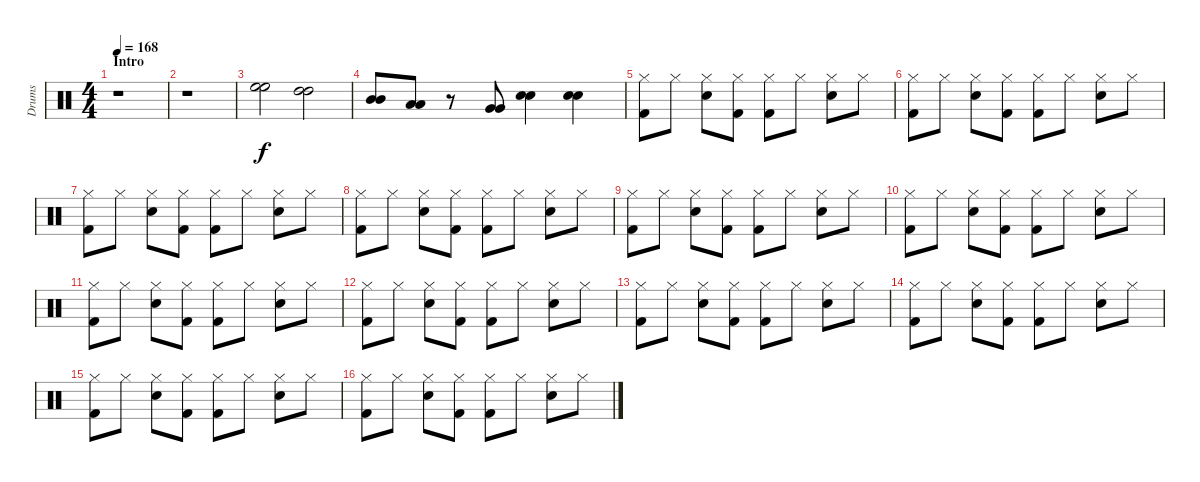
\track ("Drums" "Drums") {instrument percussion}
\staff {score}
\articulation defaults
\ts (4 4)
\section ("" "Intro")
\tempo 168
\clef neutral
\ks c
r.1{dy f} |
r.1 |
("High Floor Tom (hit)" "High Floor Tom (hit)").2 ("High Tom (hit)" "High Tom (hit)").2 |
("Mid Tom (hit)" "Mid Tom (hit)").8 ("Low Tom (hit)" "Low Tom (hit)").8 r.8 ("Very Low Tom (hit)" "Very Low Tom (hit)").8 ("Snare (hit) 2" "Electric Snare (hit)").4 ("Snare (hit) 2" "Electric Snare (hit)").4 |
("Kick (hit) 2" "Hi-Hat (closed)").8 "Hi-Hat (closed)".8 ("Snare (hit) 2" "Hi-Hat (closed)").8 ("Kick (hit) 2" "Hi-Hat (closed)").8 ("Kick (hit) 2" "Hi-Hat (closed)").8 "Hi-Hat (closed)".8 ("Snare (hit) 2" "Hi-Hat (closed)").8 "Hi-Hat (closed)".8 |
("Kick (hit) 2" "Hi-Hat (closed)").8 "Hi-Hat (closed)".8 ("Snare (hit) 2" "Hi-Hat (closed)").8 ("Kick (hit) 2" "Hi-Hat (closed)").8 ("Kick (hit) 2" "Hi-Hat (closed)").8 "Hi-Hat (closed)".8 ("Snare (hit) 2" "Hi-Hat (closed)").8 "Hi-Hat (closed)".8 |
("Kick (hit) 2" "Hi-Hat (closed)").8 "Hi-Hat (closed)".8 ("Snare (hit) 2" "Hi-Hat (closed)").8 ("Kick (hit) 2" "Hi-Hat (closed)").8 ("Kick (hit) 2" "Hi-Hat (closed)").8 "Hi-Hat (closed)".8 ("Snare (hit) 2" "Hi-Hat (closed)").8 "Hi-Hat (closed)".8 |
("Kick (hit) 2" "Hi-Hat (closed)").8 "Hi-Hat (closed)".8 ("Snare (hit) 2" "Hi-Hat (closed)").8 ("Kick (hit) 2" "Hi-Hat (closed)").8 ("Kick (hit) 2" "Hi-Hat (closed)").8 "Hi-Hat (closed)".8 ("Snare (hit) 2" "Hi-Hat (closed)").8 "Hi-Hat (closed)".8 |
("Kick (hit) 2" "Hi-Hat (closed)").8 "Hi-Hat (closed)".8 ("Snare (hit) 2" "Hi-Hat (closed)").8 ("Kick (hit) 2" "Hi-Hat (closed)").8 ("Kick (hit) 2" "Hi-Hat (closed)").8 "Hi-Hat (closed)".8 ("Snare (hit) 2" "Hi-Hat (closed)").8 "Hi-Hat (closed)".8 |
("Kick (hit) 2" "Hi-Hat (closed)").8 "Hi-Hat (closed)".8 ("Snare (hit) 2" "Hi-Hat (closed)").8 ("Kick (hit) 2" "Hi-Hat (closed)").8 ("Kick (hit) 2" "Hi-Hat (closed)").8 "Hi-Hat (closed)".8 ("Snare (hit) 2" "Hi-Hat (closed)").8 "Hi-Hat (closed)".8 |
("Kick (hit) 2" "Hi-Hat (closed)").8 "Hi-Hat (closed)".8 ("Snare (hit) 2" "Hi-Hat (closed)").8 ("Kick (hit) 2" "Hi-Hat (closed)").8 ("Kick (hit) 2" "Hi-Hat (closed)").8 "Hi-Hat (closed)".8 ("Snare (hit) 2" "Hi-Hat (closed)").8 "Hi-Hat (closed)".8 |
("Kick (hit) 2" "Hi-Hat (closed)").8 "Hi-Hat (closed)".8 ("Snare (hit) 2" "Hi-Hat (closed)").8 ("Kick (hit) 2" "Hi-Hat (closed)").8 ("Kick (hit) 2" "Hi-Hat (closed)").8 "Hi-Hat (closed)".8 ("Snare (hit) 2" "Hi-Hat (closed)").8 "Hi-Hat (closed)".8 |
("Kick (hit) 2" "Hi-Hat (closed)").8 "Hi-Hat (closed)".8 ("Snare (hit) 2" "Hi-Hat (closed)").8 ("Kick (hit) 2" "Hi-Hat (closed)").8 ("Kick (hit) 2" "Hi-Hat (closed)").8 "Hi-Hat (closed)".8 ("Snare (hit) 2" "Hi-Hat (closed)").8 "Hi-Hat (closed)".8 |
("Kick (hit) 2" "Hi-Hat (closed)").8 "Hi-Hat (closed)".8 ("Snare (hit) 2" "Hi-Hat (closed)").8 ("Kick (hit) 2" "Hi-Hat (closed)").8 ("Kick (hit) 2" "Hi-Hat (closed)").8 "Hi-Hat (closed)".8 ("Snare (hit) 2" "Hi-Hat (closed)").8 "Hi-Hat (closed)".8 |
("Kick (hit) 2" "Hi-Hat (closed)").8 "Hi-Hat (closed)".8 ("Snare (hit) 2" "Hi-Hat (closed)").8 ("Kick (hit) 2" "Hi-Hat (closed)").8 ("Kick (hit) 2" "Hi-Hat (closed)").8 "Hi-Hat (closed)".8 ("Snare (hit) 2" "Hi-Hat (closed)").8 "Hi-Hat (closed)".8 |
("Kick (hit) 2" "Hi-Hat (closed)").8 "Hi-Hat (closed)".8 ("Snare (hit) 2" "Hi-Hat (closed)").8 ("Kick (hit) 2" "Hi-Hat (closed)").8 ("Kick (hit) 2" "Hi-Hat (closed)").8 "Hi-Hat (closed)".8 ("Snare (hit) 2" "Hi-Hat (closed)").8 "Hi-Hat (closed)".8
